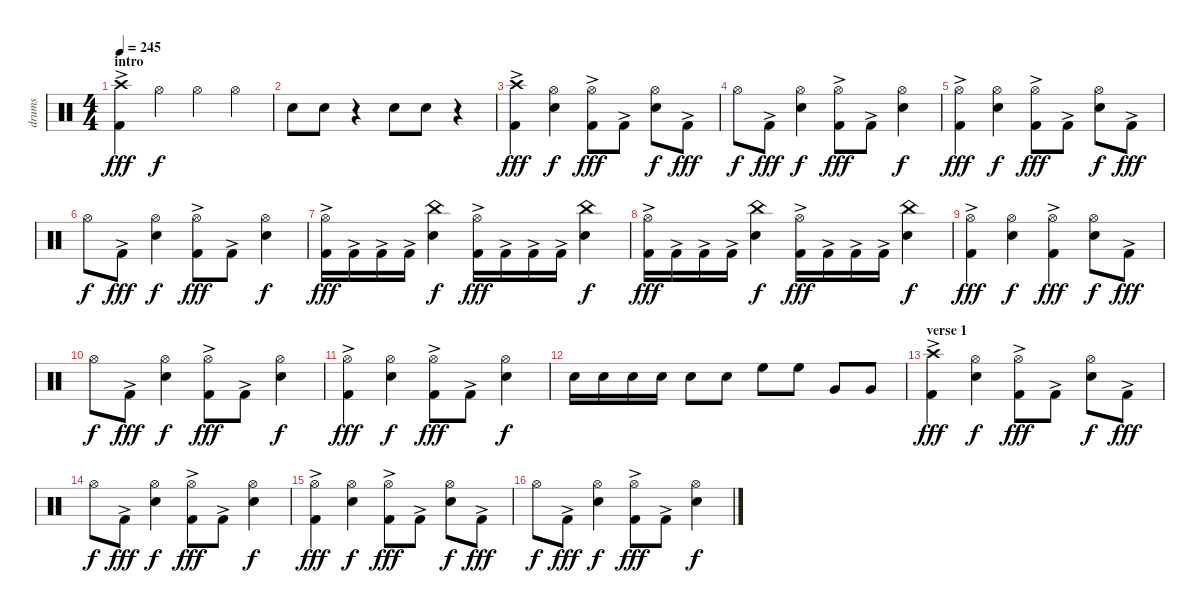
\track ("drums" "drums") {instrument percussion}
\staff {score}
\articulation defaults
\ts (4 4)
\section ("" "intro")
\tempo 245
\clef neutral
\ks c
("Crash high (hit)" "Kick (hit) 2"{ac}).4{dy fff} "Hi-Hat (open)".4{dy f} "Hi-Hat (open)".4 "Hi-Hat (open)".4 |
"Electric Snare (hit)".8 "Electric Snare (hit)".8 r.4 "Electric Snare (hit)".8 "Electric Snare (hit)".8 r.4 |
("Crash high (hit)" "Kick (hit) 2"{ac}).4{dy fff} ("Hi-Hat (open)" "Electric Snare (hit)").4{dy f} ("Hi-Hat (open)" "Kick (hit) 2"{ac}).8{dy fff} "Kick (hit) 2"{ac}.8 ("Hi-Hat (open)" "Electric Snare (hit)").8{dy f} "Kick (hit) 2"{ac}.8{dy fff} |
"Hi-Hat (open)".8{dy f} "Kick (hit) 2"{ac}.8{dy fff} ("Hi-Hat (open)" "Electric Snare (hit)").4{dy f} ("Hi-Hat (open)" "Kick (hit) 2"{ac}).8{dy fff} "Kick (hit) 2"{ac}.8 ("Hi-Hat (open)" "Electric Snare (hit)").4{dy f} |
("Hi-Hat (open)" "Kick (hit) 2"{ac}).4{dy fff} ("Hi-Hat (open)" "Electric Snare (hit)").4{dy f} ("Hi-Hat (open)" "Kick (hit) 2"{ac}).8{dy fff} "Kick (hit) 2"{ac}.8 ("Hi-Hat (open)" "Electric Snare (hit)").8{dy f} "Kick (hit) 2"{ac}.8{dy fff} |
"Hi-Hat (open)".8{dy f} "Kick (hit) 2"{ac}.8{dy fff} ("Hi-Hat (open)" "Electric Snare (hit)").4{dy f} ("Hi-Hat (open)" "Kick (hit) 2"{ac}).8{dy fff} "Kick (hit) 2"{ac}.8 ("Hi-Hat (open)" "Electric Snare (hit)").4{dy f} |
("Hi-Hat (open)" "Kick (hit) 2"{ac}).16{dy fff} "Kick (hit) 2"{ac}.16 "Kick (hit) 2"{ac}.16 "Kick (hit) 2"{ac}.16 ("China (hit)" "Electric Snare (hit)").4{dy f} ("Hi-Hat (open)" "Kick (hit) 2"{ac}).16{dy fff} "Kick (hit) 2"{ac}.16 "Kick (hit) 2"{ac}.16 "Kick (hit) 2"{ac}.16 ("China (hit)" "Electric Snare (hit)").4{dy f} |
("Hi-Hat (open)" "Kick (hit) 2"{ac}).16{dy fff} "Kick (hit) 2"{ac}.16 "Kick (hit) 2"{ac}.16 "Kick (hit) 2"{ac}.16 ("China (hit)" "Electric Snare (hit)").4{dy f} ("Hi-Hat (open)" "Kick (hit) 2"{ac}).16{dy fff} "Kick (hit) 2"{ac}.16 "Kick (hit) 2"{ac}.16 "Kick (hit) 2"{ac}.16 ("China (hit)" "Electric Snare (hit)").4{dy f} |
("Hi-Hat (open)" "Kick (hit) 2"{ac}).4{dy fff} ("Hi-Hat (open)" "Electric Snare (hit)").4{dy f} ("Hi-Hat (open)" "Kick (hit) 2"{ac}).4{dy fff} ("Hi-Hat (open)" "Electric Snare (hit)").8{dy f} "Kick (hit) 2"{ac}.8{dy fff} |
"Hi-Hat (open)".8{dy f} "Kick (hit) 2"{ac}.8{dy fff} ("Hi-Hat (open)" "Electric Snare (hit)").4{dy f} ("Hi-Hat (open)" "Kick (hit) 2"{ac}).8{dy fff} "Kick (hit) 2"{ac}.8 ("Hi-Hat (open)" "Electric Snare (hit)").4{dy f} |
("Hi-Hat (open)" "Kick (hit) 2"{ac}).4{dy fff} ("Hi-Hat (open)" "Electric Snare (hit)").4{dy f} ("Hi-Hat (open)" "Kick (hit) 2"{ac}).8{dy fff} "Kick (hit) 2"{ac}.8 ("Hi-Hat (open)" "Electric Snare (hit)").4{dy f} |
"Electric Snare (hit)".16 "Electric Snare (hit)".16 "Electric Snare (hit)".16 "Electric Snare (hit)".16 "Electric Snare (hit)".8 "Electric Snare (hit)".8 "High Floor Tom (hit)".8 "High Floor Tom (hit)".8 "Very Low Tom (hit)".8 "Very Low Tom (hit)".8 |
\section ("" "verse 1")
("Crash high (hit)" "Kick (hit) 2"{ac}).4{dy fff} ("Hi-Hat (open)" "Electric Snare (hit)").4{dy f} ("Hi-Hat (open)" "Kick (hit) 2"{ac}).8{dy fff} "Kick (hit) 2"{ac}.8 ("Hi-Hat (open)" "Electric Snare (hit)").8{dy f} "Kick (hit) 2"{ac}.8{dy fff} |
"Hi-Hat (open)".8{dy f} "Kick (hit) 2"{ac}.8{dy fff} ("Hi-Hat (open)" "Electric Snare (hit)").4{dy f} ("Hi-Hat (open)" "Kick (hit) 2"{ac}).8{dy fff} "Kick (hit) 2"{ac}.8 ("Hi-Hat (open)" "Electric Snare (hit)").4{dy f} |
("Hi-Hat (open)" "Kick (hit) 2"{ac}).4{dy fff} ("Hi-Hat (open)" "Electric Snare (hit)").4{dy f} ("Hi-Hat (open)" "Kick (hit) 2"{ac}).8{dy fff} "Kick (hit) 2"{ac}.8 ("Hi-Hat (open)" "Electric Snare (hit)").8{dy f} "Kick (hit) 2"{ac}.8{dy fff} |
"Hi-Hat (open)".8{dy f} "Kick (hit) 2"{ac}.8{dy fff} ("Hi-Hat (open)" "Electric Snare (hit)").4{dy f} ("Hi-Hat (open)" "Kick (hit) 2"{ac}).8{dy fff} "Kick (hit) 2"{ac}.8 ("Hi-Hat (open)" "Electric Snare (hit)").4{dy f}
